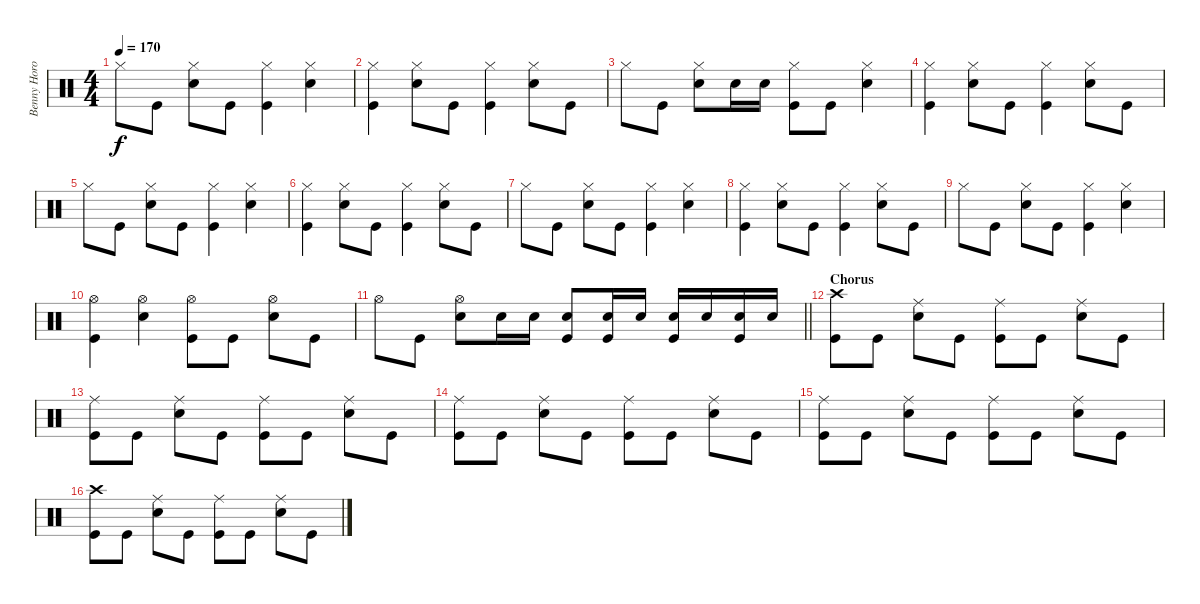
\track ("Benny Horowitz" "Benny Horo") {instrument percussion}
\staff {score}
\articulation defaults
\ts (4 4)
\tempo 170
\clef neutral
\ks c "Hi-Hat (closed)".8{dy f} "Kick (hit)".8
("Snare (hit) 2" "Hi-Hat (closed)").8 "Kick (hit)".8 ("Kick (hit)" "Hi-Hat (closed)").4 ("Snare (hit) 2" "Hi-Hat (closed)").4 |
("Kick (hit)" "Hi-Hat (closed)").4 ("Snare (hit) 2" "Hi-Hat (closed)").8 "Kick (hit)".8 ("Kick (hit)" "Hi-Hat (closed)").4 ("Snare (hit) 2" "Hi-Hat (closed)").8 "Kick (hit)".8 |
"Hi-Hat (closed)".8 "Kick (hit)".8 ("Snare (hit) 2" "Hi-Hat (closed)").8 "Snare (hit) 2".16 "Snare (hit) 2".16 ("Kick (hit)" "Hi-Hat (closed)").8 "Kick (hit)".8 ("Snare (hit) 2" "Hi-Hat (closed)").4 |
("Kick (hit)" "Hi-Hat (closed)").4 ("Snare (hit) 2" "Hi-Hat (closed)").8 "Kick (hit)".8 ("Kick (hit)" "Hi-Hat (closed)").4 ("Snare (hit) 2" "Hi-Hat (closed)").8 "Kick (hit)".8 |
"Hi-Hat (closed)".8 "Kick (hit)".8 ("Snare (hit) 2" "Hi-Hat (closed)").8 "Kick (hit)".8 ("Kick (hit)" "Hi-Hat (closed)").4 ("Snare (hit) 2" "Hi-Hat (closed)").4 |
("Kick (hit)" "Hi-Hat (closed)").4 ("Snare (hit) 2" "Hi-Hat (closed)").8 "Kick (hit)".8 ("Kick (hit)" "Hi-Hat (closed)").4 ("Snare (hit) 2" "Hi-Hat (closed)").8 "Kick (hit)".8 |
"Hi-Hat (closed)".8 "Kick (hit)".8 ("Snare (hit) 2" "Hi-Hat (closed)").8 "Kick (hit)".8 ("Kick (hit)" "Hi-Hat (closed)").4 ("Snare (hit) 2" "Hi-Hat (closed)").4 |
("Kick (hit)" "Hi-Hat (closed)").4 ("Snare (hit) 2" "Hi-Hat (closed)").8 "Kick (hit)".8 ("Kick (hit)" "Hi-Hat (closed)").4 ("Snare (hit) 2" "Hi-Hat (closed)").8 "Kick (hit)".8 |
"Hi-Hat (closed)".8 "Kick (hit)".8 ("Snare (hit) 2" "Hi-Hat (closed)").8 "Kick (hit)".8 ("Kick (hit)" "Hi-Hat (closed)").4 ("Snare (hit) 2" "Hi-Hat (closed)").4 |
("Kick (hit)" "Hi-Hat (open)").4 ("Snare (hit) 2" "Hi-Hat (open)").4 ("Kick (hit)" "Hi-Hat (open)").8 "Kick (hit)".8 ("Snare (hit) 2" "Hi-Hat (open)").8 "Kick (hit)".8 |
\barLineRight lightlight "Hi-Hat (open)".8 "Kick (hit)".8
("Snare (hit) 2" "Hi-Hat (open)").8 "Snare (hit) 2".16 "Snare (hit) 2".16 ("Snare (hit) 2" "Kick (hit)").8 ("Snare (hit) 2" "Kick (hit)").16 "Snare (hit) 2".16 ("Snare (hit) 2" "Kick (hit)").16 "Snare (hit) 2".16 ("Snare (hit) 2" "Kick (hit)").16 "Snare (hit) 2".16 |
\section ("" "Chorus")
("Crash high (hit)" "Kick (hit)").8 "Kick (hit)".8 ("Snare (hit) 2" "Ride (middle)").8 "Kick (hit)".8 ("Kick (hit)" "Ride (middle)").8 "Kick (hit)".8 ("Snare (hit) 2" "Ride (middle)").8 "Kick (hit)".8 |
("Kick (hit)" "Ride (middle)").8 "Kick (hit)".8 ("Snare (hit) 2" "Ride (middle)").8 "Kick (hit)".8 ("Kick (hit)" "Ride (middle)").8 "Kick (hit)".8 ("Snare (hit) 2" "Ride (middle)").8 "Kick (hit)".8 |
("Kick (hit)" "Ride (middle)").8 "Kick (hit)".8 ("Snare (hit) 2" "Ride (middle)").8 "Kick (hit)".8 ("Kick (hit)" "Ride (middle)").8 "Kick (hit)".8 ("Snare (hit) 2" "Ride (middle)").8 "Kick (hit)".8 |
("Kick (hit)" "Ride (middle)").8 "Kick (hit)".8 ("Snare (hit) 2" "Ride (middle)").8 "Kick (hit)".8 ("Kick (hit)" "Ride (middle)").8 "Kick (hit)".8 ("Snare (hit) 2" "Ride (middle)").8 "Kick (hit)".8 |
("Crash high (hit)" "Kick (hit)").8 "Kick (hit)".8 ("Snare (hit) 2" "Ride (middle)").8 "Kick (hit)".8 ("Kick (hit)" "Ride (middle)").8 "Kick (hit)".8 ("Snare (hit) 2" "Ride (middle)").8 "Kick (hit)".8
